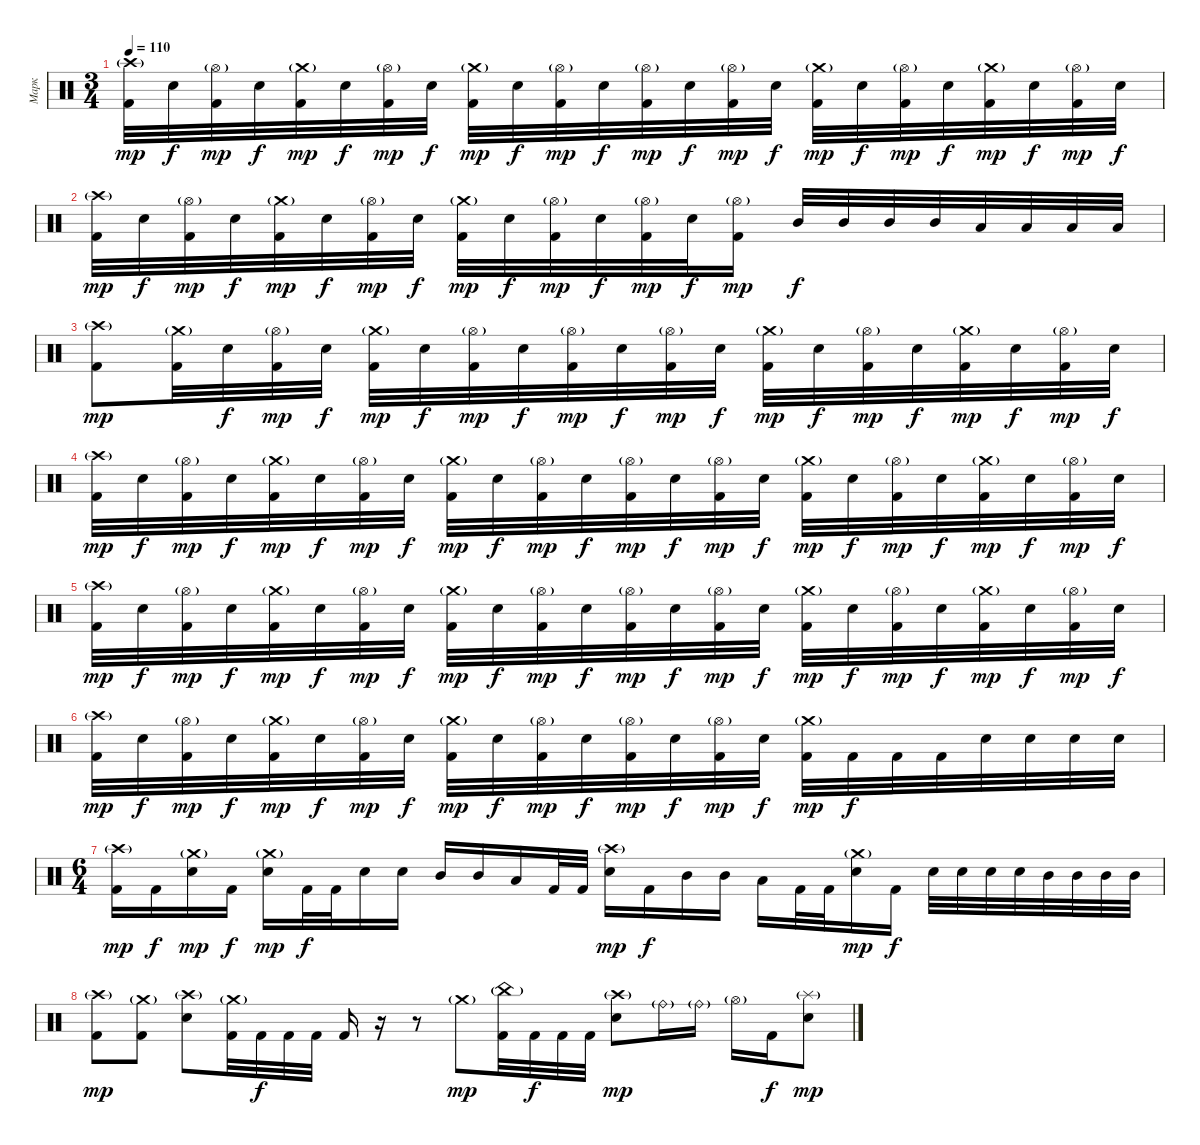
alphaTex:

\track ("Марк " "Марк ") {instrument percussion}
\staff {score}
\articulation defaults
\ts (3 4)
\tempo 110
\clef neutral
\ks c
("Crash high (hit)"{g} "Kick (hit) 2").32{dy mp} "Electric Snare (hit)".32{dy f} ("Hi-Hat (open)"{g} "Kick (hit) 2").32{dy mp} "Electric Snare (hit)".32{dy f} ("Crash medium (hit)"{g} "Kick (hit) 2").32{dy mp} "Electric Snare (hit)".32{dy f} ("Hi-Hat (open)"{g} "Kick (hit) 2").32{dy mp} "Electric Snare (hit)".32{dy f} ("Crash medium (hit)"{g} "Kick (hit) 2").32{dy mp} "Electric Snare (hit)".32{dy f} ("Hi-Hat (open)"{g} "Kick (hit) 2").32{dy mp} "Electric Snare (hit)".32{dy f} ("Hi-Hat (open)"{g} "Kick (hit) 2").32{dy mp} "Electric Snare (hit)".32{dy f} ("Hi-Hat (open)"{g} "Kick (hit) 2").32{dy mp} "Electric Snare (hit)".32{dy f} ("Crash medium (hit)"{g} "Kick (hit) 2").32{dy mp} "Electric Snare (hit)".32{dy f} ("Hi-Hat (open)"{g} "Kick (hit) 2").32{dy mp} "Electric Snare (hit)".32{dy f} ("Crash medium (hit)"{g} "Kick (hit) 2").32{dy mp} "Electric Snare (hit)".32{dy f} ("Hi-Hat (open)"{g} "Kick (hit) 2").32{dy mp} "Electric Snare (hit)".32{dy f} |
("Crash high (hit)"{g} "Kick (hit) 2").32{dy mp} "Electric Snare (hit)".32{dy f} ("Hi-Hat (open)"{g} "Kick (hit) 2").32{dy mp} "Electric Snare (hit)".32{dy f} ("Crash medium (hit)"{g} "Kick (hit) 2").32{dy mp} "Electric Snare (hit)".32{dy f} ("Hi-Hat (open)"{g} "Kick (hit) 2").32{dy mp} "Electric Snare (hit)".32{dy f} ("Crash medium (hit)"{g} "Kick (hit) 2").32{dy mp} "Electric Snare (hit)".32{dy f} ("Hi-Hat (open)"{g} "Kick (hit) 2").32{dy mp} "Electric Snare (hit)".32{dy f} ("Hi-Hat (open)"{g} "Kick (hit) 2").32{dy mp} "Electric Snare (hit)".32{dy f} ("Hi-Hat (open)"{g} "Kick (hit) 2").16{dy mp} "Mid Tom (hit)".32{dy f} "Mid Tom (hit)".32 "Mid Tom (hit)".32 "Mid Tom (hit)".32 "Low Tom (hit)".32 "Low Tom (hit)".32 "Low Tom (hit)".32 "Low Tom (hit)".32 |
("Crash high (hit)"{g} "Kick (hit) 2").8{dy mp} ("Crash medium (hit)"{g} "Kick (hit) 2").32 "Electric Snare (hit)".32{dy f} ("Hi-Hat (open)"{g} "Kick (hit) 2").32{dy mp} "Electric Snare (hit)".32{dy f} ("Crash medium (hit)"{g} "Kick (hit) 2").32{dy mp} "Electric Snare (hit)".32{dy f} ("Hi-Hat (open)"{g} "Kick (hit) 2").32{dy mp} "Electric Snare (hit)".32{dy f} ("Hi-Hat (open)"{g} "Kick (hit) 2").32{dy mp} "Electric Snare (hit)".32{dy f} ("Hi-Hat (open)"{g} "Kick (hit) 2").32{dy mp} "Electric Snare (hit)".32{dy f} ("Crash medium (hit)"{g} "Kick (hit) 2").32{dy mp} "Electric Snare (hit)".32{dy f} ("Hi-Hat (open)"{g} "Kick (hit) 2").32{dy mp} "Electric Snare (hit)".32{dy f} ("Crash medium (hit)"{g} "Kick (hit) 2").32{dy mp} "Electric Snare (hit)".32{dy f} ("Hi-Hat (open)"{g} "Kick (hit) 2").32{dy mp} "Electric Snare (hit)".32{dy f} |
("Crash high (hit)"{g} "Kick (hit) 2").32{dy mp} "Electric Snare (hit)".32{dy f} ("Hi-Hat (open)"{g} "Kick (hit) 2").32{dy mp} "Electric Snare (hit)".32{dy f} ("Crash medium (hit)"{g} "Kick (hit) 2").32{dy mp} "Electric Snare (hit)".32{dy f} ("Hi-Hat (open)"{g} "Kick (hit) 2").32{dy mp} "Electric Snare (hit)".32{dy f} ("Crash medium (hit)"{g} "Kick (hit) 2").32{dy mp} "Electric Snare (hit)".32{dy f} ("Hi-Hat (open)"{g} "Kick (hit) 2").32{dy mp} "Electric Snare (hit)".32{dy f} ("Hi-Hat (open)"{g} "Kick (hit) 2").32{dy mp} "Electric Snare (hit)".32{dy f} ("Hi-Hat (open)"{g} "Kick (hit) 2").32{dy mp} "Electric Snare (hit)".32{dy f} ("Crash medium (hit)"{g} "Kick (hit) 2").32{dy mp} "Electric Snare (hit)".32{dy f} ("Hi-Hat (open)"{g} "Kick (hit) 2").32{dy mp} "Electric Snare (hit)".32{dy f} ("Crash medium (hit)"{g} "Kick (hit) 2").32{dy mp} "Electric Snare (hit)".32{dy f} ("Hi-Hat (open)"{g} "Kick (hit) 2").32{dy mp} "Electric Snare (hit)".32{dy f} |
("Crash high (hit)"{g} "Kick (hit) 2").32{dy mp} "Electric Snare (hit)".32{dy f} ("Hi-Hat (open)"{g} "Kick (hit) 2").32{dy mp} "Electric Snare (hit)".32{dy f} ("Crash medium (hit)"{g} "Kick (hit) 2").32{dy mp} "Electric Snare (hit)".32{dy f} ("Hi-Hat (open)"{g} "Kick (hit) 2").32{dy mp} "Electric Snare (hit)".32{dy f} ("Crash medium (hit)"{g} "Kick (hit) 2").32{dy mp} "Electric Snare (hit)".32{dy f} ("Hi-Hat (open)"{g} "Kick (hit) 2").32{dy mp} "Electric Snare (hit)".32{dy f} ("Hi-Hat (open)"{g} "Kick (hit) 2").32{dy mp} "Electric Snare (hit)".32{dy f} ("Hi-Hat (open)"{g} "Kick (hit) 2").32{dy mp} "Electric Snare (hit)".32{dy f} ("Crash medium (hit)"{g} "Kick (hit) 2").32{dy mp} "Electric Snare (hit)".32{dy f} ("Hi-Hat (open)"{g} "Kick (hit) 2").32{dy mp} "Electric Snare (hit)".32{dy f} ("Crash medium (hit)"{g} "Kick (hit) 2").32{dy mp} "Electric Snare (hit)".32{dy f} ("Hi-Hat (open)"{g} "Kick (hit) 2").32{dy mp} "Electric Snare (hit)".32{dy f} |
("Crash high (hit)"{g} "Kick (hit) 2").32{dy mp} "Electric Snare (hit)".32{dy f} ("Hi-Hat (open)"{g} "Kick (hit) 2").32{dy mp} "Electric Snare (hit)".32{dy f} ("Crash medium (hit)"{g} "Kick (hit) 2").32{dy mp} "Electric Snare (hit)".32{dy f} ("Hi-Hat (open)"{g} "Kick (hit) 2").32{dy mp} "Electric Snare (hit)".32{dy f} ("Crash medium (hit)"{g} "Kick (hit) 2").32{dy mp} "Electric Snare (hit)".32{dy f} ("Hi-Hat (open)"{g} "Kick (hit) 2").32{dy mp} "Electric Snare (hit)".32{dy f} ("Hi-Hat (open)"{g} "Kick (hit) 2").32{dy mp} "Electric Snare (hit)".32{dy f} ("Hi-Hat (open)"{g} "Kick (hit) 2").32{dy mp} "Electric Snare (hit)".32{dy f} ("Crash medium (hit)"{g} "Kick (hit) 2").32{dy mp} "Kick (hit) 2".32{dy f} "Kick (hit) 2".32 "Kick (hit) 2".32 "Electric Snare (hit)".32 "Electric Snare (hit)".32 "Electric Snare (hit)".32 "Electric Snare (hit)".32 |
\ts (6 4)
("Crash high (hit)"{g} "Kick (hit) 2").16{dy mp} "Kick (hit) 2".16{dy f} ("Crash medium (hit)"{g} "Electric Snare (hit)").16{dy mp} "Kick (hit) 2".16{dy f} ("Crash medium (hit)"{g} "Electric Snare (hit)").16{dy mp} "Kick (hit) 2".32{dy f} "Kick (hit) 2".32 "Electric Snare (hit)".16 "Electric Snare (hit)".16 "Mid Tom (hit)".16 "Mid Tom (hit)".16 "Low Tom (hit)".16 "Kick (hit) 2".32 "Kick (hit) 2".32 ("Crash high (hit)"{g} "Electric Snare (hit)").16{dy mp} "Kick (hit) 2".16{dy f} "Mid Tom (hit)".16 "Mid Tom (hit)".16 "Low Tom (hit)".16 "Kick (hit) 2".32 "Kick (hit) 2".32 ("Crash medium (hit)"{g} "Electric Snare (hit)").16{dy mp} "Kick (hit) 2".16{dy f} "Electric Snare (hit)".32 "Electric Snare (hit)".32 "Electric Snare (hit)".32 "Electric Snare (hit)".32 "Mid Tom (hit)".32 "Mid Tom (hit)".32 "Mid Tom (hit)".32 "Mid Tom (hit)".32 |
("Crash high (hit)"{g} "Kick (hit) 2").8{dy mp} ("Crash medium (hit)"{g} "Kick (hit) 2").8 ("Crash high (hit)"{g} "Electric Snare (hit)").8 ("Crash medium (hit)"{g} "Kick (hit) 2").32 "Kick (hit) 2".32{dy f} "Kick (hit) 2".32 "Kick (hit) 2".32 "Kick (hit) 2".16 r.16 r.8 "Crash medium (hit)"{g}.8{dy mp} ("China (hit)"{g} "Kick (hit) 2").32 "Kick (hit) 2".32{dy f} "Kick (hit) 2".32 "Kick (hit) 2".32 ("Crash high (hit)"{g} "Electric Snare (hit)").8{dy mp} "Ride (bell)"{g}.16 "Ride (bell)"{g}.16 "Hi-Hat (open)"{g}.16 "Kick (hit) 2".16{dy f} ("Splash (hit)"{g} "Electric Snare (hit)").8{dy mp}
